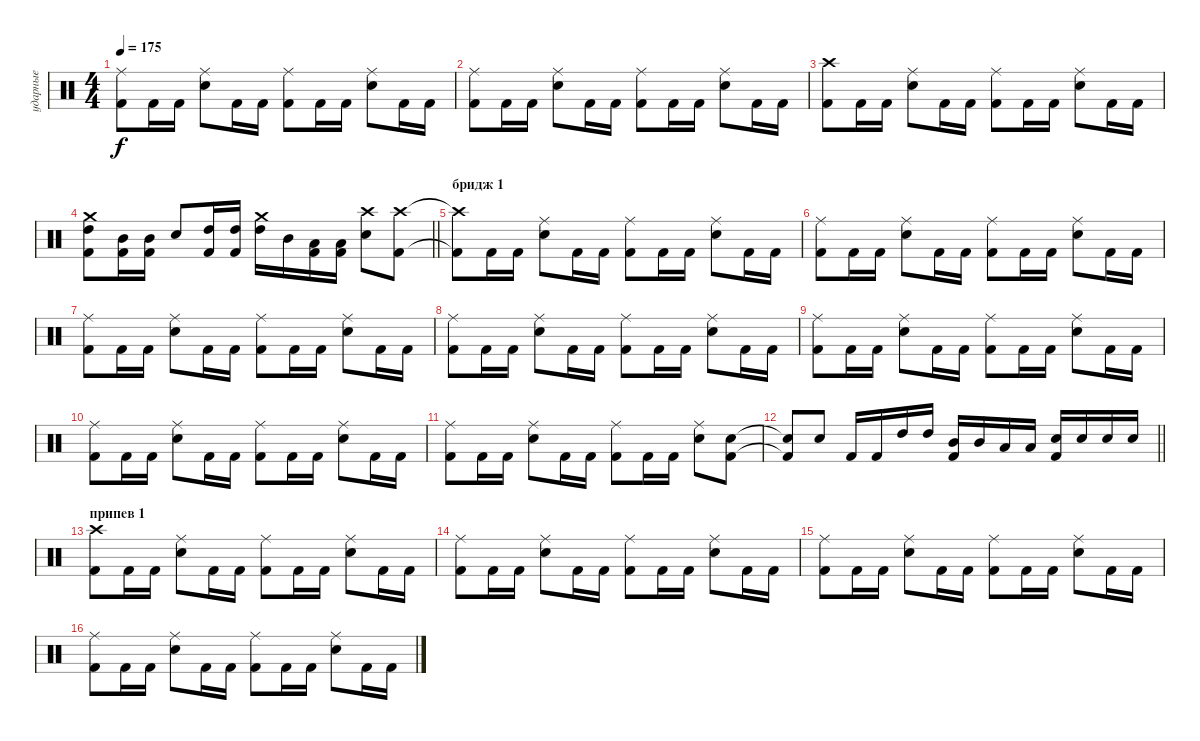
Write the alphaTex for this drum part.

\track ("ударные" "ударные") {instrument percussion}
\staff {score}
\articulation defaults
\ts (4 4)
\tempo 175
\clef neutral
\ks c
("Kick (hit) 2" "Ride (middle)").8{dy f} "Kick (hit) 2".16 "Kick (hit) 2".16 ("Snare (hit) 2" "Ride (middle)").8 "Kick (hit) 2".16 "Kick (hit) 2".16 ("Kick (hit) 2" "Ride (middle)").8 "Kick (hit) 2".16 "Kick (hit) 2".16 ("Snare (hit) 2" "Ride (middle)").8 "Kick (hit) 2".16 "Kick (hit) 2".16 |
("Kick (hit) 2" "Ride (middle)").8 "Kick (hit) 2".16 "Kick (hit) 2".16 ("Snare (hit) 2" "Ride (middle)").8 "Kick (hit) 2".16 "Kick (hit) 2".16 ("Kick (hit) 2" "Ride (middle)").8 "Kick (hit) 2".16 "Kick (hit) 2".16 ("Snare (hit) 2" "Ride (middle)").8 "Kick (hit) 2".16 "Kick (hit) 2".16 |
("Kick (hit) 2" "Crash high (hit)").8 "Kick (hit) 2".16 "Kick (hit) 2".16 ("Snare (hit) 2" "Ride (middle)").8 "Kick (hit) 2".16 "Kick (hit) 2".16 ("Kick (hit) 2" "Ride (middle)").8 "Kick (hit) 2".16 "Kick (hit) 2".16 ("Snare (hit) 2" "Ride (middle)").8 "Kick (hit) 2".16 "Kick (hit) 2".16 |
\barLineRight lightlight
("Kick (hit) 2" "High Tom (hit)" "Crash medium (hit)").8 ("Kick (hit) 2" "Mid Tom (hit)").16 ("Kick (hit) 2" "Mid Tom (hit)").16 "Snare (hit) 2".8 ("Kick (hit) 2" "High Tom (hit)").16 ("Kick (hit) 2" "High Tom (hit)").16 ("High Tom (hit)" "Crash medium (hit)").16 "Mid Tom (hit)".16 ("Kick (hit) 2" "Low Tom (hit)").16 ("Kick (hit) 2" "Low Tom (hit)").16 ("Snare (hit) 2" "Crash high (hit)").8 ("Kick (hit) 2" "Crash high (hit)").8 |
\section ("" "бридж 1")
("Kick (hit) 2"{t} "Crash high (hit)"{t}).8 "Kick (hit) 2".16 "Kick (hit) 2".16 ("Snare (hit) 2" "Ride (middle)").8 "Kick (hit) 2".16 "Kick (hit) 2".16 ("Kick (hit) 2" "Ride (middle)").8 "Kick (hit) 2".16 "Kick (hit) 2".16 ("Snare (hit) 2" "Ride (middle)").8 "Kick (hit) 2".16 "Kick (hit) 2".16 |
("Kick (hit) 2" "Ride (middle)").8 "Kick (hit) 2".16 "Kick (hit) 2".16 ("Snare (hit) 2" "Ride (middle)").8 "Kick (hit) 2".16 "Kick (hit) 2".16 ("Kick (hit) 2" "Ride (middle)").8 "Kick (hit) 2".16 "Kick (hit) 2".16 ("Snare (hit) 2" "Ride (middle)").8 "Kick (hit) 2".16 "Kick (hit) 2".16 |
("Kick (hit) 2" "Ride (middle)").8 "Kick (hit) 2".16 "Kick (hit) 2".16 ("Snare (hit) 2" "Ride (middle)").8 "Kick (hit) 2".16 "Kick (hit) 2".16 ("Kick (hit) 2" "Ride (middle)").8 "Kick (hit) 2".16 "Kick (hit) 2".16 ("Snare (hit) 2" "Ride (middle)").8 "Kick (hit) 2".16 "Kick (hit) 2".16 |
("Kick (hit) 2" "Ride (middle)").8 "Kick (hit) 2".16 "Kick (hit) 2".16 ("Snare (hit) 2" "Ride (middle)").8 "Kick (hit) 2".16 "Kick (hit) 2".16 ("Kick (hit) 2" "Ride (middle)").8 "Kick (hit) 2".16 "Kick (hit) 2".16 ("Snare (hit) 2" "Ride (middle)").8 "Kick (hit) 2".16 "Kick (hit) 2".16 |
("Kick (hit) 2" "Ride (middle)").8 "Kick (hit) 2".16 "Kick (hit) 2".16 ("Snare (hit) 2" "Ride (middle)").8 "Kick (hit) 2".16 "Kick (hit) 2".16 ("Kick (hit) 2" "Ride (middle)").8 "Kick (hit) 2".16 "Kick (hit) 2".16 ("Snare (hit) 2" "Ride (middle)").8 "Kick (hit) 2".16 "Kick (hit) 2".16 |
("Kick (hit) 2" "Ride (middle)").8 "Kick (hit) 2".16 "Kick (hit) 2".16 ("Snare (hit) 2" "Ride (middle)").8 "Kick (hit) 2".16 "Kick (hit) 2".16 ("Kick (hit) 2" "Ride (middle)").8 "Kick (hit) 2".16 "Kick (hit) 2".16 ("Snare (hit) 2" "Ride (middle)").8 "Kick (hit) 2".16 "Kick (hit) 2".16 |
("Kick (hit) 2" "Ride (middle)").8 "Kick (hit) 2".16 "Kick (hit) 2".16 ("Snare (hit) 2" "Ride (middle)").8 "Kick (hit) 2".16 "Kick (hit) 2".16 ("Kick (hit) 2" "Ride (middle)").8 "Kick (hit) 2".16 "Kick (hit) 2".16 ("Snare (hit) 2" "Ride (middle)").8 ("Kick (hit) 2" "Snare (hit) 2").8 |
\barLineRight lightlight
("Kick (hit) 2"{t} "Snare (hit) 2"{t}).8 "Snare (hit) 2".8 "Kick (hit) 2".16 "Kick (hit) 2".16 "High Tom (hit)".16 "High Tom (hit)".16 ("Kick (hit) 2" "Mid Tom (hit)").16 "Mid Tom (hit)".16 "Low Tom (hit)".16 "Low Tom (hit)".16 ("Kick (hit) 2" "Snare (hit) 2").16 "Snare (hit) 2".16 "Snare (hit) 2".16 "Snare (hit) 2".16 |
\section ("" "припев 1")
("Kick (hit) 2" "Crash high (hit)").8 "Kick (hit) 2".16 "Kick (hit) 2".16 ("Snare (hit) 2" "Ride (middle)").8 "Kick (hit) 2".16 "Kick (hit) 2".16 ("Kick (hit) 2" "Ride (middle)").8 "Kick (hit) 2".16 "Kick (hit) 2".16 ("Snare (hit) 2" "Ride (middle)").8 "Kick (hit) 2".16 "Kick (hit) 2".16 |
("Kick (hit) 2" "Ride (middle)").8 "Kick (hit) 2".16 "Kick (hit) 2".16 ("Snare (hit) 2" "Ride (middle)").8 "Kick (hit) 2".16 "Kick (hit) 2".16 ("Kick (hit) 2" "Ride (middle)").8 "Kick (hit) 2".16 "Kick (hit) 2".16 ("Snare (hit) 2" "Ride (middle)").8 "Kick (hit) 2".16 "Kick (hit) 2".16 |
("Kick (hit) 2" "Ride (middle)").8 "Kick (hit) 2".16 "Kick (hit) 2".16 ("Snare (hit) 2" "Ride (middle)").8 "Kick (hit) 2".16 "Kick (hit) 2".16 ("Kick (hit) 2" "Ride (middle)").8 "Kick (hit) 2".16 "Kick (hit) 2".16 ("Snare (hit) 2" "Ride (middle)").8 "Kick (hit) 2".16 "Kick (hit) 2".16 |
("Kick (hit) 2" "Ride (middle)").8 "Kick (hit) 2".16 "Kick (hit) 2".16 ("Snare (hit) 2" "Ride (middle)").8 "Kick (hit) 2".16 "Kick (hit) 2".16 ("Kick (hit) 2" "Ride (middle)").8 "Kick (hit) 2".16 "Kick (hit) 2".16 ("Snare (hit) 2" "Ride (middle)").8 "Kick (hit) 2".16 "Kick (hit) 2".16
